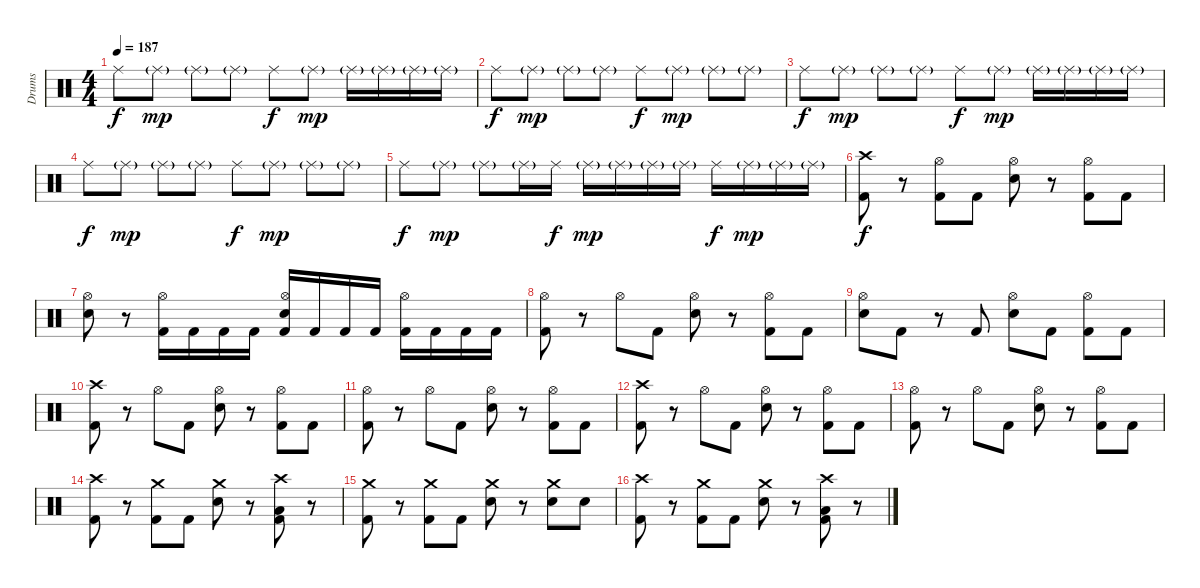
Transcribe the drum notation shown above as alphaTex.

\track ("Drums" "Drums") {instrument percussion}
\staff {score}
\articulation defaults
\ts (4 4)
\tempo 187
\clef neutral
\ks c "Ride (middle)".8{dy f} "Ride (middle)"{g}.8{dy mp} "Ride (middle)"{g}.8 "Ride (middle)"{g}.8 "Ride (middle)".8{dy f} "Ride (middle)"{g}.8{dy mp} "Ride (middle)"{g}.16 "Ride (middle)"{g}.16 "Ride (middle)"{g}.16 "Ride (middle)"{g}.16
|
"Ride (middle)".8{dy f} "Ride (middle)"{g}.8{dy mp} "Ride (middle)"{g}.8 "Ride (middle)"{g}.8 "Ride (middle)".8{dy f} "Ride (middle)"{g}.8{dy mp} "Ride (middle)"{g}.8 "Ride (middle)"{g}.8 |
"Ride (middle)".8{dy f} "Ride (middle)"{g}.8{dy mp} "Ride (middle)"{g}.8 "Ride (middle)"{g}.8 "Ride (middle)".8{dy f} "Ride (middle)"{g}.8{dy mp} "Ride (middle)"{g}.16 "Ride (middle)"{g}.16 "Ride (middle)"{g}.16 "Ride (middle)"{g}.16 |
"Ride (middle)".8{dy f} "Ride (middle)"{g}.8{dy mp} "Ride (middle)"{g}.8 "Ride (middle)"{g}.8 "Ride (middle)".8{dy f} "Ride (middle)"{g}.8{dy mp} "Ride (middle)"{g}.8 "Ride (middle)"{g}.8 |
"Ride (middle)".8{dy f} "Ride (middle)"{g}.8{dy mp} "Ride (middle)"{g}.8 "Ride (middle)"{g}.16 "Ride (middle)".16{dy f} "Ride (middle)"{g}.16{dy mp} "Ride (middle)"{g}.16 "Ride (middle)"{g}.16 "Ride (middle)"{g}.16 "Ride (middle)".16{dy f} "Ride (middle)"{g}.16{dy mp} "Ride (middle)"{g}.16 "Ride (middle)"{g}.16 |
("Crash high (hit)" "Kick (hit) 2").8{dy f} r.8 ("Hi-Hat (open)" "Kick (hit) 2").8 "Kick (hit) 2".8 ("Hi-Hat (open)" "Electric Snare (hit)").8 r.8 ("Hi-Hat (open)" "Kick (hit) 2").8 "Kick (hit) 2".8 |
("Hi-Hat (open)" "Electric Snare (hit)").8 r.8 ("Hi-Hat (open)" "Kick (hit) 2").16 "Kick (hit) 2".16 "Kick (hit) 2".16 "Kick (hit) 2".16 ("Hi-Hat (open)" "Electric Snare (hit)" "Kick (hit) 2").16 "Kick (hit) 2".16 "Kick (hit) 2".16 "Kick (hit) 2".16 ("Hi-Hat (open)" "Kick (hit) 2").16 "Kick (hit) 2".16 "Kick (hit) 2".16 "Kick (hit) 2".16 |
("Hi-Hat (open)" "Kick (hit) 2").8 r.8 "Hi-Hat (open)".8 "Kick (hit) 2".8 ("Hi-Hat (open)" "Electric Snare (hit)").8 r.8 ("Hi-Hat (open)" "Kick (hit) 2").8 "Kick (hit) 2".8 |
("Hi-Hat (open)" "Electric Snare (hit)").8 "Kick (hit) 2".8 r.8 "Kick (hit) 2".8 ("Hi-Hat (open)" "Electric Snare (hit)").8 "Kick (hit) 2".8 ("Hi-Hat (open)" "Kick (hit) 2").8 "Kick (hit) 2".8 |
("Crash high (hit)" "Kick (hit) 2").8 r.8 "Hi-Hat (open)".8 "Kick (hit) 2".8 ("Hi-Hat (open)" "Electric Snare (hit)").8 r.8 ("Hi-Hat (open)" "Kick (hit) 2").8 "Kick (hit) 2".8 |
("Hi-Hat (open)" "Kick (hit) 2").8 r.8 "Hi-Hat (open)".8 "Kick (hit) 2".8 ("Hi-Hat (open)" "Electric Snare (hit)").8 r.8 ("Hi-Hat (open)" "Kick (hit) 2").8 "Kick (hit) 2".8 |
("Crash high (hit)" "Kick (hit) 2").8 r.8 "Hi-Hat (open)".8 "Kick (hit) 2".8 ("Hi-Hat (open)" "Electric Snare (hit)").8 r.8 ("Hi-Hat (open)" "Kick (hit) 2").8 "Kick (hit) 2".8 |
("Hi-Hat (open)" "Kick (hit) 2").8 r.8 "Hi-Hat (open)".8 "Kick (hit) 2".8 ("Hi-Hat (open)" "Electric Snare (hit)").8 r.8 ("Hi-Hat (open)" "Kick (hit) 2").8 "Kick (hit) 2".8 |
("Crash high (hit)" "Kick (hit) 2").8 r.8 ("Crash medium (hit)" "Kick (hit) 2").8 "Kick (hit) 2".8 ("Crash medium (hit)" "Electric Snare (hit)").8 r.8 ("Crash high (hit)" "Low Floor Tom (hit)" "Kick (hit) 2").8 r.8 |
("Crash medium (hit)" "Kick (hit) 2").8 r.8 ("Crash medium (hit)" "Kick (hit) 2").8 "Kick (hit) 2".8 ("Crash medium (hit)" "Electric Snare (hit)").8 r.8 ("Crash medium (hit)" "Electric Snare (hit)").8 "Electric Snare (hit)".8 |
("Crash high (hit)" "Kick (hit) 2").8 r.8 ("Crash medium (hit)" "Kick (hit) 2").8 "Kick (hit) 2".8 ("Crash medium (hit)" "Electric Snare (hit)").8 r.8 ("Crash high (hit)" "Low Floor Tom (hit)" "Kick (hit) 2").8 r.8
